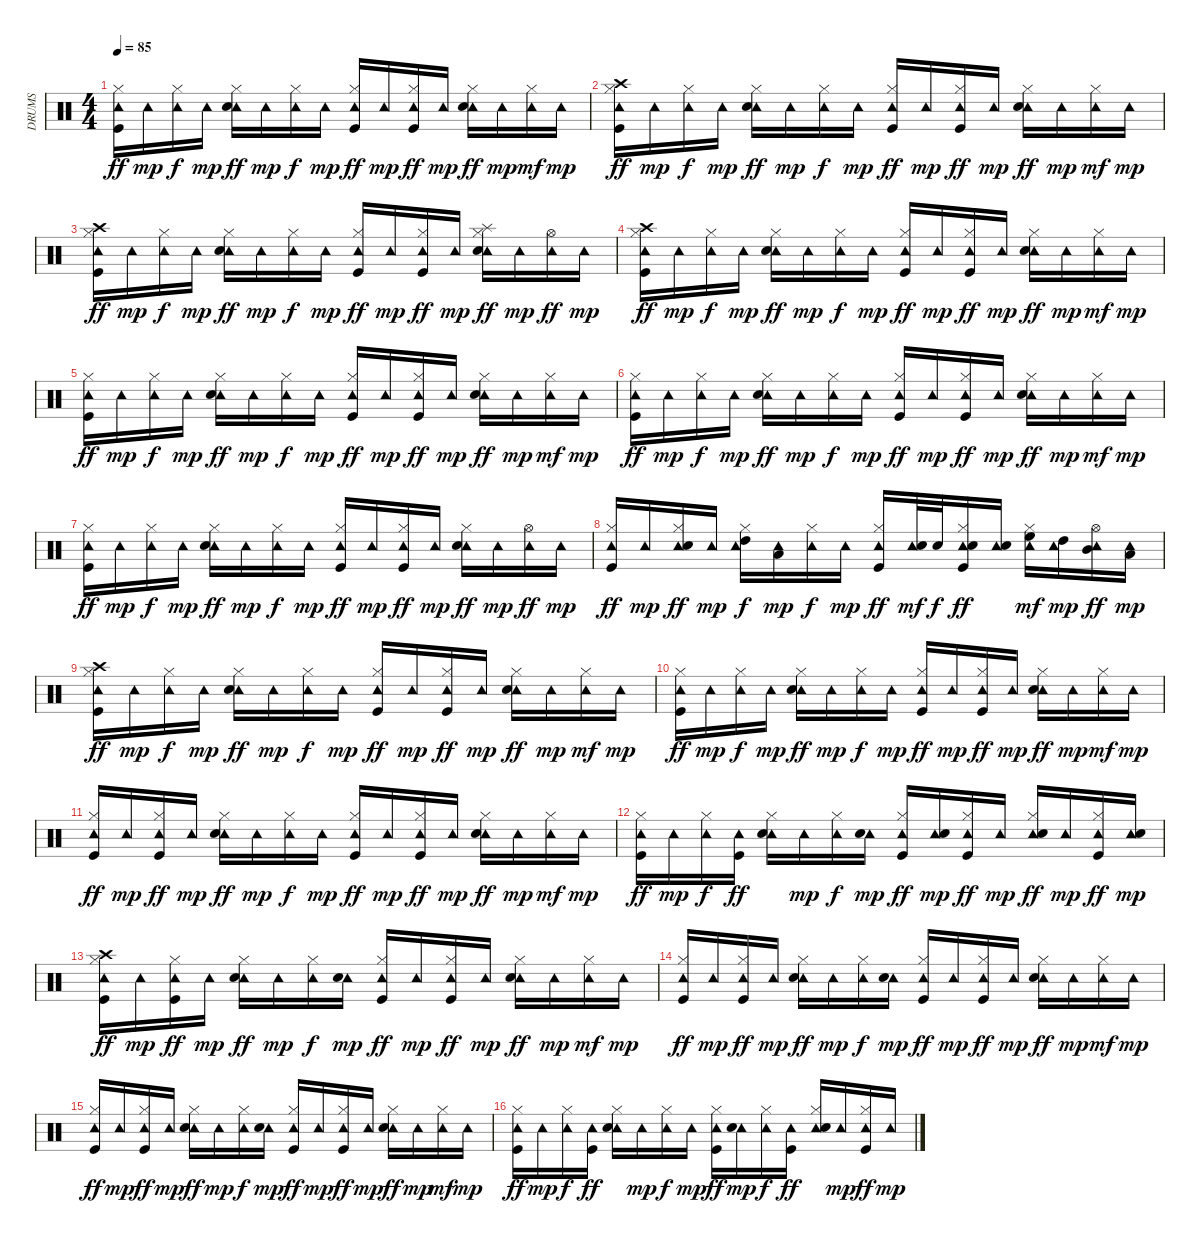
\track ("DRUMS" "DRUMS") {instrument percussion}
\staff {score}
\articulation defaults
\ts (4 4)
\tempo 85
\clef neutral
\ks c
("Tambourine (hit)" "Hi-Hat (closed)" "Kick (hit)").16{dy ff} "Tambourine (hit)".16{dy mp} ("Tambourine (hit)" "Hi-Hat (closed)").16{dy f} "Tambourine (hit)".16{dy mp} ("Tambourine (hit)" "Electric Snare (hit)" "Hi-Hat (closed)").16{dy ff} "Tambourine (hit)".16{dy mp} ("Tambourine (hit)" "Hi-Hat (closed)").16{dy f} "Tambourine (hit)".16{dy mp} ("Tambourine (hit)" "Hi-Hat (closed)" "Kick (hit)").16{dy ff} "Tambourine (hit)".16{dy mp} ("Tambourine (hit)" "Hi-Hat (closed)" "Kick (hit)").16{dy ff} "Tambourine (hit)".16{dy mp} ("Tambourine (hit)" "Electric Snare (hit)" "Hi-Hat (closed)").16{dy ff} "Tambourine (hit)".16{dy mp} ("Tambourine (hit)" "Hi-Hat (closed)").16{dy mf} "Tambourine (hit)".16{dy mp} |
("Tambourine (hit)" "Crash high (hit)" "Hi-Hat (closed)" "Kick (hit)").16{dy ff} "Tambourine (hit)".16{dy mp} ("Tambourine (hit)" "Hi-Hat (closed)").16{dy f} "Tambourine (hit)".16{dy mp} ("Tambourine (hit)" "Electric Snare (hit)" "Hi-Hat (closed)").16{dy ff} "Tambourine (hit)".16{dy mp} ("Tambourine (hit)" "Hi-Hat (closed)").16{dy f} "Tambourine (hit)".16{dy mp} ("Tambourine (hit)" "Hi-Hat (closed)" "Kick (hit)").16{dy ff} "Tambourine (hit)".16{dy mp} ("Tambourine (hit)" "Hi-Hat (closed)" "Kick (hit)").16{dy ff} "Tambourine (hit)".16{dy mp} ("Tambourine (hit)" "Electric Snare (hit)" "Hi-Hat (closed)").16{dy ff} "Tambourine (hit)".16{dy mp} ("Tambourine (hit)" "Hi-Hat (closed)").16{dy mf} "Tambourine (hit)".16{dy mp} |
("Tambourine (hit)" "Crash high (hit)" "Hi-Hat (closed)" "Kick (hit)").16{dy ff} "Tambourine (hit)".16{dy mp} ("Tambourine (hit)" "Hi-Hat (closed)").16{dy f} "Tambourine (hit)".16{dy mp} ("Tambourine (hit)" "Electric Snare (hit)" "Hi-Hat (closed)").16{dy ff} "Tambourine (hit)".16{dy mp} ("Tambourine (hit)" "Hi-Hat (closed)").16{dy f} "Tambourine (hit)".16{dy mp} ("Tambourine (hit)" "Hi-Hat (closed)" "Kick (hit)").16{dy ff} "Tambourine (hit)".16{dy mp} ("Tambourine (hit)" "Hi-Hat (closed)" "Kick (hit)").16{dy ff} "Tambourine (hit)".16{dy mp} ("Tambourine (hit)" "Splash (hit)" "Electric Snare (hit)" "Hi-Hat (closed)").16{dy ff} "Tambourine (hit)".16{dy mp} ("Tambourine (hit)" "Hi-Hat (open)").16{dy ff} "Tambourine (hit)".16{dy mp} |
("Tambourine (hit)" "Crash high (hit)" "Hi-Hat (closed)" "Kick (hit)").16{dy ff} "Tambourine (hit)".16{dy mp} ("Tambourine (hit)" "Hi-Hat (closed)").16{dy f} "Tambourine (hit)".16{dy mp} ("Tambourine (hit)" "Electric Snare (hit)" "Hi-Hat (closed)").16{dy ff} "Tambourine (hit)".16{dy mp} ("Tambourine (hit)" "Hi-Hat (closed)").16{dy f} "Tambourine (hit)".16{dy mp} ("Tambourine (hit)" "Hi-Hat (closed)" "Kick (hit)").16{dy ff} "Tambourine (hit)".16{dy mp} ("Tambourine (hit)" "Hi-Hat (closed)" "Kick (hit)").16{dy ff} "Tambourine (hit)".16{dy mp} ("Tambourine (hit)" "Electric Snare (hit)" "Hi-Hat (closed)").16{dy ff} "Tambourine (hit)".16{dy mp} ("Tambourine (hit)" "Hi-Hat (closed)").16{dy mf} "Tambourine (hit)".16{dy mp} |
("Tambourine (hit)" "Hi-Hat (closed)" "Kick (hit)").16{dy ff} "Tambourine (hit)".16{dy mp} ("Tambourine (hit)" "Hi-Hat (closed)").16{dy f} "Tambourine (hit)".16{dy mp} ("Tambourine (hit)" "Electric Snare (hit)" "Hi-Hat (closed)").16{dy ff} "Tambourine (hit)".16{dy mp} ("Tambourine (hit)" "Hi-Hat (closed)").16{dy f} "Tambourine (hit)".16{dy mp} ("Tambourine (hit)" "Hi-Hat (closed)" "Kick (hit)").16{dy ff} "Tambourine (hit)".16{dy mp} ("Tambourine (hit)" "Hi-Hat (closed)" "Kick (hit)").16{dy ff} "Tambourine (hit)".16{dy mp} ("Tambourine (hit)" "Electric Snare (hit)" "Hi-Hat (closed)").16{dy ff} "Tambourine (hit)".16{dy mp} ("Tambourine (hit)" "Hi-Hat (closed)").16{dy mf} "Tambourine (hit)".16{dy mp} |
("Tambourine (hit)" "Hi-Hat (closed)" "Kick (hit)").16{dy ff} "Tambourine (hit)".16{dy mp} ("Tambourine (hit)" "Hi-Hat (closed)").16{dy f} "Tambourine (hit)".16{dy mp} ("Tambourine (hit)" "Electric Snare (hit)" "Hi-Hat (closed)").16{dy ff} "Tambourine (hit)".16{dy mp} ("Tambourine (hit)" "Hi-Hat (closed)").16{dy f} "Tambourine (hit)".16{dy mp} ("Tambourine (hit)" "Hi-Hat (closed)" "Kick (hit)").16{dy ff} "Tambourine (hit)".16{dy mp} ("Tambourine (hit)" "Hi-Hat (closed)" "Kick (hit)").16{dy ff} "Tambourine (hit)".16{dy mp} ("Tambourine (hit)" "Electric Snare (hit)" "Hi-Hat (closed)").16{dy ff} "Tambourine (hit)".16{dy mp} ("Tambourine (hit)" "Hi-Hat (closed)").16{dy mf} "Tambourine (hit)".16{dy mp} |
("Tambourine (hit)" "Hi-Hat (closed)" "Kick (hit)").16{dy ff} "Tambourine (hit)".16{dy mp} ("Tambourine (hit)" "Hi-Hat (closed)").16{dy f} "Tambourine (hit)".16{dy mp} ("Tambourine (hit)" "Electric Snare (hit)" "Hi-Hat (closed)").16{dy ff} "Tambourine (hit)".16{dy mp} ("Tambourine (hit)" "Hi-Hat (closed)").16{dy f} "Tambourine (hit)".16{dy mp} ("Tambourine (hit)" "Hi-Hat (closed)" "Kick (hit)").16{dy ff} "Tambourine (hit)".16{dy mp} ("Tambourine (hit)" "Hi-Hat (closed)" "Kick (hit)").16{dy ff} "Tambourine (hit)".16{dy mp} ("Tambourine (hit)" "Electric Snare (hit)" "Hi-Hat (closed)").16{dy ff} "Tambourine (hit)".16{dy mp} ("Tambourine (hit)" "Hi-Hat (open)").16{dy ff} "Tambourine (hit)".16{dy mp} |
("Tambourine (hit)" "Hi-Hat (closed)" "Kick (hit)").16{dy ff} "Tambourine (hit)".16{dy mp} ("Tambourine (hit)" "Electric Snare (hit)" "Hi-Hat (closed)").16{dy ff} "Tambourine (hit)".16{dy mp} ("High Tom (hit)" "Tambourine (hit)" "Hi-Hat (closed)").16{dy f} ("Low Tom (hit)" "Tambourine (hit)").16{dy mp} ("Tambourine (hit)" "Hi-Hat (closed)").16{dy f} "Tambourine (hit)".16{dy mp} ("Tambourine (hit)" "Hi-Hat (closed)" "Kick (hit)").16{dy ff} ("Tambourine (hit)" "Electric Snare (hit)").32{dy mf} "Electric Snare (hit)".32{dy f} ("Tambourine (hit)" "Electric Snare (hit)" "Hi-Hat (closed)" "Kick (hit)").16{dy ff} ("Tambourine (hit)" "Electric Snare (hit)").16 ("High Floor Tom (hit)" "Tambourine (hit)" "Hi-Hat (closed)").16{dy mf} ("High Tom (hit)" "Tambourine (hit)").16{dy mp} ("Mid Tom (hit)" "Tambourine (hit)" "Hi-Hat (open)").16{dy ff} ("Low Tom (hit)" "Tambourine (hit)").16{dy mp} |
("Tambourine (hit)" "Crash high (hit)" "Hi-Hat (closed)" "Kick (hit)").16{dy ff} "Tambourine (hit)".16{dy mp} ("Tambourine (hit)" "Hi-Hat (closed)").16{dy f} "Tambourine (hit)".16{dy mp} ("Tambourine (hit)" "Electric Snare (hit)" "Hi-Hat (closed)").16{dy ff} "Tambourine (hit)".16{dy mp} ("Tambourine (hit)" "Hi-Hat (closed)").16{dy f} "Tambourine (hit)".16{dy mp} ("Tambourine (hit)" "Hi-Hat (closed)" "Kick (hit)").16{dy ff} "Tambourine (hit)".16{dy mp} ("Tambourine (hit)" "Hi-Hat (closed)" "Kick (hit)").16{dy ff} "Tambourine (hit)".16{dy mp} ("Tambourine (hit)" "Electric Snare (hit)" "Hi-Hat (closed)").16{dy ff} "Tambourine (hit)".16{dy mp} ("Tambourine (hit)" "Hi-Hat (closed)").16{dy mf} "Tambourine (hit)".16{dy mp} |
("Tambourine (hit)" "Hi-Hat (closed)" "Kick (hit)").16{dy ff} "Tambourine (hit)".16{dy mp} ("Tambourine (hit)" "Hi-Hat (closed)").16{dy f} "Tambourine (hit)".16{dy mp} ("Tambourine (hit)" "Electric Snare (hit)" "Hi-Hat (closed)").16{dy ff} "Tambourine (hit)".16{dy mp} ("Tambourine (hit)" "Hi-Hat (closed)").16{dy f} "Tambourine (hit)".16{dy mp} ("Tambourine (hit)" "Hi-Hat (closed)" "Kick (hit)").16{dy ff} "Tambourine (hit)".16{dy mp} ("Tambourine (hit)" "Hi-Hat (closed)" "Kick (hit)").16{dy ff} "Tambourine (hit)".16{dy mp} ("Tambourine (hit)" "Electric Snare (hit)" "Hi-Hat (closed)").16{dy ff} "Tambourine (hit)".16{dy mp} ("Tambourine (hit)" "Hi-Hat (closed)").16{dy mf} "Tambourine (hit)".16{dy mp} |
("Tambourine (hit)" "Hi-Hat (closed)" "Kick (hit)").16{dy ff} "Tambourine (hit)".16{dy mp} ("Tambourine (hit)" "Hi-Hat (closed)" "Kick (hit)").16{dy ff} "Tambourine (hit)".16{dy mp} ("Tambourine (hit)" "Electric Snare (hit)" "Hi-Hat (closed)").16{dy ff} "Tambourine (hit)".16{dy mp} ("Tambourine (hit)" "Hi-Hat (closed)").16{dy f} "Tambourine (hit)".16{dy mp} ("Tambourine (hit)" "Hi-Hat (closed)" "Kick (hit)").16{dy ff} "Tambourine (hit)".16{dy mp} ("Tambourine (hit)" "Hi-Hat (closed)" "Kick (hit)").16{dy ff} "Tambourine (hit)".16{dy mp} ("Tambourine (hit)" "Electric Snare (hit)" "Hi-Hat (closed)").16{dy ff} "Tambourine (hit)".16{dy mp} ("Tambourine (hit)" "Hi-Hat (closed)").16{dy mf} "Tambourine (hit)".16{dy mp} |
("Tambourine (hit)" "Hi-Hat (closed)" "Kick (hit)").16{dy ff} "Tambourine (hit)".16{dy mp} ("Tambourine (hit)" "Hi-Hat (closed)").16{dy f} ("Tambourine (hit)" "Kick (hit)").16{dy ff} ("Tambourine (hit)" "Electric Snare (hit)" "Hi-Hat (closed)").16 "Tambourine (hit)".16{dy mp} ("Tambourine (hit)" "Hi-Hat (closed)").16{dy f} ("Tambourine (hit)" "Electric Snare (hit)").16{dy mp} ("Tambourine (hit)" "Hi-Hat (closed)" "Kick (hit)").16{dy ff} ("Tambourine (hit)" "Electric Snare (hit)").16{dy mp} ("Tambourine (hit)" "Hi-Hat (closed)" "Kick (hit)").16{dy ff} "Tambourine (hit)".16{dy mp} ("Tambourine (hit)" "Electric Snare (hit)" "Hi-Hat (closed)").16{dy ff} "Tambourine (hit)".16{dy mp} ("Tambourine (hit)" "Hi-Hat (closed)" "Kick (hit)").16{dy ff} ("Tambourine (hit)" "Electric Snare (hit)").16{dy mp} |
("Tambourine (hit)" "Crash high (hit)" "Hi-Hat (closed)" "Kick (hit)").16{dy ff} "Tambourine (hit)".16{dy mp} ("Tambourine (hit)" "Hi-Hat (closed)" "Kick (hit)").16{dy ff} "Tambourine (hit)".16{dy mp} ("Tambourine (hit)" "Electric Snare (hit)" "Hi-Hat (closed)").16{dy ff} "Tambourine (hit)".16{dy mp} ("Tambourine (hit)" "Hi-Hat (closed)").16{dy f} ("Tambourine (hit)" "Electric Snare (hit)").16{dy mp} ("Tambourine (hit)" "Hi-Hat (closed)" "Kick (hit)").16{dy ff} "Tambourine (hit)".16{dy mp} ("Tambourine (hit)" "Hi-Hat (closed)" "Kick (hit)").16{dy ff} "Tambourine (hit)".16{dy mp} ("Tambourine (hit)" "Electric Snare (hit)" "Hi-Hat (closed)").16{dy ff} "Tambourine (hit)".16{dy mp} ("Tambourine (hit)" "Hi-Hat (closed)").16{dy mf} "Tambourine (hit)".16{dy mp} |
("Tambourine (hit)" "Hi-Hat (closed)" "Kick (hit)").16{dy ff} "Tambourine (hit)".16{dy mp} ("Tambourine (hit)" "Hi-Hat (closed)" "Kick (hit)").16{dy ff} "Tambourine (hit)".16{dy mp} ("Tambourine (hit)" "Electric Snare (hit)" "Hi-Hat (closed)").16{dy ff} "Tambourine (hit)".16{dy mp} ("Tambourine (hit)" "Hi-Hat (closed)").16{dy f} ("Tambourine (hit)" "Electric Snare (hit)").16{dy mp} ("Tambourine (hit)" "Hi-Hat (closed)" "Kick (hit)").16{dy ff} "Tambourine (hit)".16{dy mp} ("Tambourine (hit)" "Hi-Hat (closed)" "Kick (hit)").16{dy ff} "Tambourine (hit)".16{dy mp} ("Tambourine (hit)" "Electric Snare (hit)" "Hi-Hat (closed)").16{dy ff} "Tambourine (hit)".16{dy mp} ("Tambourine (hit)" "Hi-Hat (closed)").16{dy mf} "Tambourine (hit)".16{dy mp} |
("Tambourine (hit)" "Hi-Hat (closed)" "Kick (hit)").16{dy ff} "Tambourine (hit)".16{dy mp} ("Tambourine (hit)" "Hi-Hat (closed)" "Kick (hit)").16{dy ff} "Tambourine (hit)".16{dy mp} ("Tambourine (hit)" "Electric Snare (hit)" "Hi-Hat (closed)").16{dy ff} "Tambourine (hit)".16{dy mp} ("Tambourine (hit)" "Hi-Hat (closed)").16{dy f} ("Tambourine (hit)" "Electric Snare (hit)").16{dy mp} ("Tambourine (hit)" "Hi-Hat (closed)" "Kick (hit)").16{dy ff} "Tambourine (hit)".16{dy mp} ("Tambourine (hit)" "Hi-Hat (closed)" "Kick (hit)").16{dy ff} "Tambourine (hit)".16{dy mp} ("Tambourine (hit)" "Electric Snare (hit)" "Hi-Hat (closed)").16{dy ff} "Tambourine (hit)".16{dy mp} ("Tambourine (hit)" "Hi-Hat (closed)").16{dy mf} "Tambourine (hit)".16{dy mp} |
("Tambourine (hit)" "Hi-Hat (closed)" "Kick (hit)").16{dy ff} "Tambourine (hit)".16{dy mp} ("Tambourine (hit)" "Hi-Hat (closed)").16{dy f} ("Tambourine (hit)" "Kick (hit)").16{dy ff} ("Tambourine (hit)" "Electric Snare (hit)" "Hi-Hat (closed)").16 "Tambourine (hit)".16{dy mp} ("Tambourine (hit)" "Hi-Hat (closed)").16{dy f} "Tambourine (hit)".16{dy mp} ("Tambourine (hit)" "Hi-Hat (closed)" "Kick (hit)").16{dy ff} ("Tambourine (hit)" "Electric Snare (hit)").16{dy mp} ("Tambourine (hit)" "Hi-Hat (closed)").16{dy f} ("Tambourine (hit)" "Kick (hit)").16{dy ff} ("Tambourine (hit)" "Electric Snare (hit)" "Hi-Hat (closed)").16 "Tambourine (hit)".16{dy mp} ("Tambourine (hit)" "Hi-Hat (closed)" "Kick (hit)").16{dy ff} "Tambourine (hit)".16{dy mp}
